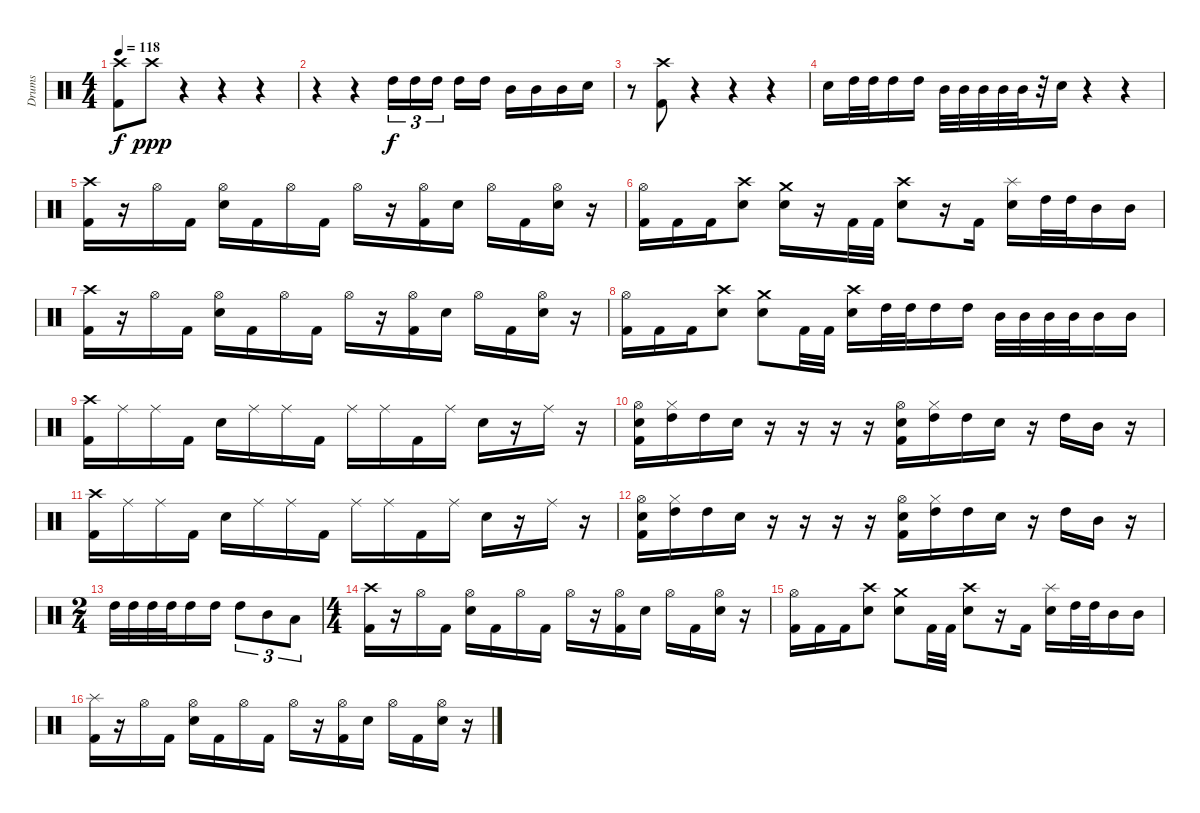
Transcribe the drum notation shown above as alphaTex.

\track ("Drums" "Drums") {instrument percussion}
\staff {score}
\articulation defaults
\ts (4 4)
\tempo 118
\clef neutral
\ks c
("Kick (hit) 2" "Crash high (hit)").8{dy f} "Crash high (hit)".8{dy ppp} r.4 r.4 r.4 |
r.4 r.4 "High Tom (hit)".16{tu (3 2) dy f} "High Tom (hit)".16{tu (3 2)} "High Tom (hit)".16{tu (3 2) beam splitsecondary} "High Tom (hit)".16 "High Tom (hit)".16 "Mid Tom (hit)".16 "Mid Tom (hit)".16 "Mid Tom (hit)".16 "Snare (hit) 2".16 |
r.8 ("Kick (hit) 2" "Crash high (hit)").8 r.4 r.4 r.4 |
"Snare (hit) 2".16 "High Tom (hit)".32 "High Tom (hit)".32 "High Tom (hit)".16 "High Tom (hit)".16 "Mid Tom (hit)".32 "Mid Tom (hit)".32 "Mid Tom (hit)".32 "Mid Tom (hit)".32 "Mid Tom (hit)".32 r.32 "Snare (hit) 2".16 r.4 r.4 |
("Kick (hit) 2" "Crash high (hit)").16 r.16 "Hi-Hat (open)".16 "Kick (hit) 2".16 ("Snare (hit) 2" "Hi-Hat (open)").16 "Kick (hit) 2".16 "Hi-Hat (open)".16 "Kick (hit) 2".16 "Hi-Hat (open)".16 r.16 ("Kick (hit) 2" "Hi-Hat (open)").16 "Snare (hit) 2".16 "Hi-Hat (open)".16 "Kick (hit) 2".16 ("Snare (hit) 2" "Hi-Hat (open)").16 r.16 |
("Kick (hit) 2" "Hi-Hat (open)").16 "Kick (hit) 2".16 "Kick (hit) 2".16 ("Snare (hit) 2" "Crash high (hit)").8 ("Snare (hit) 2" "Crash medium (hit)").16 r.16 "Kick (hit) 2".32 "Kick (hit) 2".32 ("Snare (hit) 2" "Crash high (hit)").8 r.16 "Kick (hit) 2".16 ("Snare (hit) 2" "Splash (hit)").16 "High Tom (hit)".32 "High Tom (hit)".32 "Mid Tom (hit)".16 "Mid Tom (hit)".16 |
("Kick (hit) 2" "Crash high (hit)").16 r.16 "Hi-Hat (open)".16 "Kick (hit) 2".16 ("Snare (hit) 2" "Hi-Hat (open)").16 "Kick (hit) 2".16 "Hi-Hat (open)".16 "Kick (hit) 2".16 "Hi-Hat (open)".16 r.16 ("Kick (hit) 2" "Hi-Hat (open)").16 "Snare (hit) 2".16 "Hi-Hat (open)".16 "Kick (hit) 2".16 ("Snare (hit) 2" "Hi-Hat (open)").16 r.16 |
("Kick (hit) 2" "Hi-Hat (open)").16 "Kick (hit) 2".16 "Kick (hit) 2".16 ("Snare (hit) 2" "Crash high (hit)").8 ("Snare (hit) 2" "Crash medium (hit)").8 "Kick (hit) 2".32 "Kick (hit) 2".32 ("Snare (hit) 2" "Crash high (hit)").16 "High Tom (hit)".32 "High Tom (hit)".32 "High Tom (hit)".16 "High Tom (hit)".16 "Mid Tom (hit)".32 "Mid Tom (hit)".32 "Mid Tom (hit)".32 "Mid Tom (hit)".32 "Mid Tom (hit)".16 "Mid Tom (hit)".16 |
("Crash high (hit)" "Kick (hit) 2").16 "Ride (middle)".16 "Ride (middle)".16 "Kick (hit) 2".16 "Snare (hit) 2".16 "Ride (middle)".16 "Ride (middle)".16 "Kick (hit) 2".16 "Ride (middle)".16 "Ride (middle)".16 "Kick (hit) 2".16 "Ride (middle)".16 "Snare (hit) 2".16 r.16 "Ride (middle)".16 r.16 |
("Hi-Hat (open)" "Kick (hit) 2" "Snare (hit) 2").16 ("Hi-Hat (closed)" "High Tom (hit)").16 "High Tom (hit)".16 "Snare (hit) 2".16 r.16 r.16 r.16 r.16 ("Hi-Hat (open)" "Kick (hit) 2" "Snare (hit) 2").16 ("Hi-Hat (closed)" "High Tom (hit)").16 "High Tom (hit)".16 "Snare (hit) 2".16 r.16 "High Tom (hit)".16 "Mid Tom (hit)".16 r.16 |
("Crash high (hit)" "Kick (hit) 2").16 "Ride (middle)".16 "Ride (middle)".16 "Kick (hit) 2".16 "Snare (hit) 2".16 "Ride (middle)".16 "Ride (middle)".16 "Kick (hit) 2".16 "Ride (middle)".16 "Ride (middle)".16 "Kick (hit) 2".16 "Ride (middle)".16 "Snare (hit) 2".16 r.16 "Ride (middle)".16 r.16 |
("Hi-Hat (open)" "Kick (hit) 2" "Snare (hit) 2").16 ("Hi-Hat (closed)" "High Tom (hit)").16 "High Tom (hit)".16 "Snare (hit) 2".16 r.16 r.16 r.16 r.16 ("Hi-Hat (open)" "Kick (hit) 2" "Snare (hit) 2").16 ("Hi-Hat (closed)" "High Tom (hit)").16 "High Tom (hit)".16 "Snare (hit) 2".16 r.16 "High Tom (hit)".16 "Mid Tom (hit)".16 r.16 |
\ts (2 4)
"High Tom (hit)".32 "High Tom (hit)".32 "High Tom (hit)".32 "High Tom (hit)".32 "High Tom (hit)".16 "High Tom (hit)".16 "High Tom (hit)".8{tu (3 2)} "Mid Tom (hit)".8{tu (3 2)} "Low Tom (hit)".8{tu (3 2)} |
\ts (4 4)
("Kick (hit) 2" "Crash high (hit)").16 r.16 "Hi-Hat (open)".16 "Kick (hit) 2".16 ("Snare (hit) 2" "Hi-Hat (open)").16 "Kick (hit) 2".16 "Hi-Hat (open)".16 "Kick (hit) 2".16 "Hi-Hat (open)".16 r.16 ("Kick (hit) 2" "Hi-Hat (open)").16 "Snare (hit) 2".16 "Hi-Hat (open)".16 "Kick (hit) 2".16 ("Snare (hit) 2" "Hi-Hat (open)").16 r.16 |
("Kick (hit) 2" "Hi-Hat (open)").16 "Kick (hit) 2".16 "Kick (hit) 2".16 ("Snare (hit) 2" "Crash high (hit)").8 ("Snare (hit) 2" "Crash medium (hit)").8 "Kick (hit) 2".32 "Kick (hit) 2".32 ("Snare (hit) 2" "Crash high (hit)").8 r.16 "Kick (hit) 2".16 ("Snare (hit) 2" "Splash (hit)").16 "High Tom (hit)".32 "High Tom (hit)".32 "Mid Tom (hit)".16 "Mid Tom (hit)".16 |
("Kick (hit) 2" "Splash (hit)").16 r.16 "Hi-Hat (open)".16 "Kick (hit) 2".16 ("Snare (hit) 2" "Hi-Hat (open)").16 "Kick (hit) 2".16 "Hi-Hat (open)".16 "Kick (hit) 2".16 "Hi-Hat (open)".16 r.16 ("Kick (hit) 2" "Hi-Hat (open)").16 "Snare (hit) 2".16 "Hi-Hat (open)".16 "Kick (hit) 2".16 ("Snare (hit) 2" "Hi-Hat (open)").16 r.16
